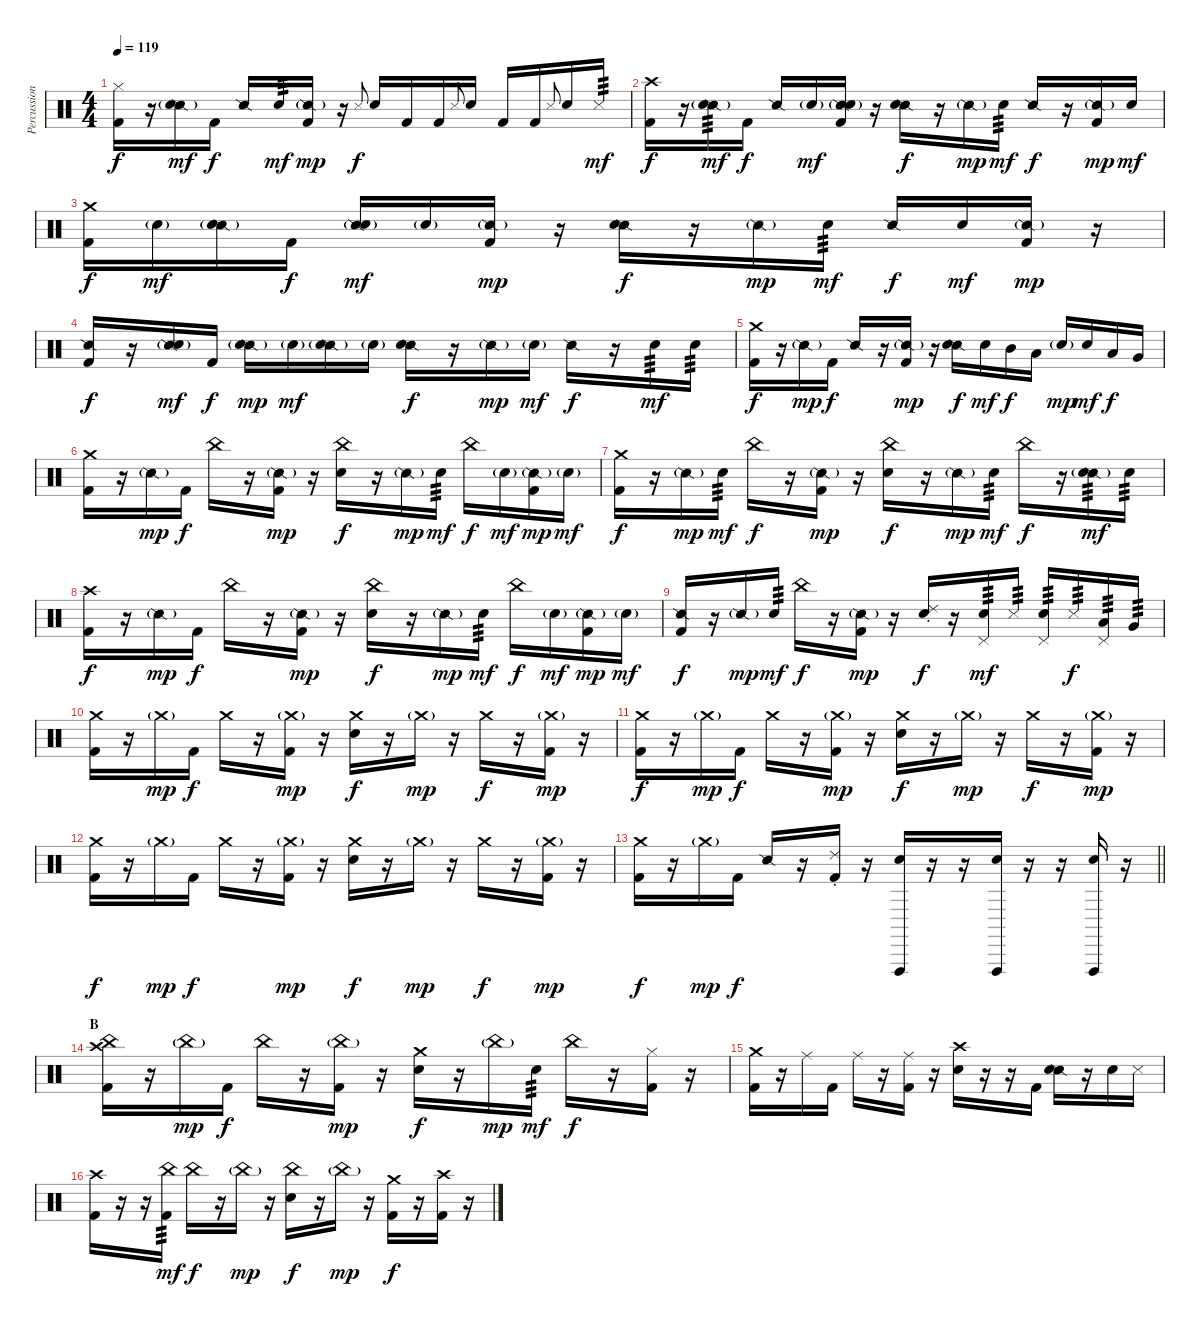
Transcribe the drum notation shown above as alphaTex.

\track ("Percussion" "Percussion") {instrument percussion}
\staff {score}
\articulation defaults
\ts (4 4)
\tempo 119
\clef neutral
\ks c
("Hi-Hat (closed)" "Kick (hit) 2").16{dy f} r.16 ("Snare (side stick) 2"{g} "Snare (hit) 2").16{dy mf} "Kick (hit) 2".16{dy f} "Snare (side stick) 2".16 "Snare (hit) 2".16{tp 3 dy mf} ("Snare (side stick) 2"{g} "Kick (hit) 2").16{dy mp} r.16 "Metronome (hit)".8{gr onbeat dy f} "Snare (hit) 2".16 "Kick (hit) 2".16 "Kick (hit) 2".16 "Metronome (hit)".8{gr onbeat} "Snare (hit) 2".16 "Kick (hit) 2".16 "Kick (hit) 2".16 "Metronome (hit)".8{gr onbeat} "Snare (hit) 2".16 "Metronome (hit)".16{tp 3 dy mf} |
("Crash high (hit)" "Kick (hit) 2").16{dy f} r.16 ("Snare (side stick) 2"{g} "Snare (hit) 2").16{tp 3 dy mf} "Kick (hit) 2".16{dy f} "Snare (side stick) 2".16 "Snare (hit) 2"{g}.16{dy mf} ("Snare (side stick) 2"{g} "Snare (hit) 2"{g} "Kick (hit) 2").16 r.16 ("Snare (side stick) 2" "Snare (hit) 2").16{dy f} r.16 "Snare (side stick) 2"{g}.16{dy mp} "Snare (hit) 2".16{tp 3 dy mf} "Snare (side stick) 2".16{dy f} r.16 ("Snare (side stick) 2"{g} "Kick (hit) 2").16{dy mp} "Snare (hit) 2".16{dy mf} |
("Crash medium (hit)" "Kick (hit) 2").16{dy f} "Snare (hit) 2"{g}.16{dy mf} ("Snare (side stick) 2"{g} "Snare (hit) 2"{g}).16 "Kick (hit) 2".16{dy f} ("Snare (side stick) 2" "Snare (hit) 2"{g}).16{dy mf} "Snare (hit) 2"{g}.16 ("Snare (side stick) 2"{g} "Kick (hit) 2").16{dy mp} r.16 ("Snare (side stick) 2" "Snare (hit) 2").16{dy f} r.16 "Snare (side stick) 2"{g}.16{dy mp} "Snare (hit) 2".16{tp 3 dy mf} "Snare (side stick) 2".16{dy f} "Snare (hit) 2".16{dy mf} ("Snare (side stick) 2"{g} "Kick (hit) 2").16{dy mp} r.16 |
("Snare (side stick) 2" "Kick (hit) 2").16{dy f} r.16 ("Snare (side stick) 2"{g} "Snare (hit) 2"{g}).16{dy mf} "Kick (hit) 2".16{dy f} ("Snare (side stick) 2" "Snare (hit) 2"{g}).16{dy mp} "Snare (hit) 2"{g}.16{dy mf} ("Snare (side stick) 2"{g} "Snare (hit) 2").16 "Snare (hit) 2"{g}.16 ("Snare (side stick) 2" "Snare (hit) 2").16{dy f} r.16 "Snare (side stick) 2"{g}.16{dy mp} "Snare (hit) 2"{g}.16{dy mf} "Snare (side stick) 2".16{dy f} r.16 "Snare (hit) 2".16{tp 3 dy mf} "Snare (hit) 2".16{tp 3} |
("Crash medium (hit)" "Kick (hit) 2").16{dy f} r.16 "Snare (side stick) 2"{g}.16{dy mp} "Kick (hit) 2".16{dy f} "Snare (side stick) 2".16 r.16 ("Snare (side stick) 2"{g} "Kick (hit) 2").16{dy mp} r.16 ("Snare (side stick) 2" "Snare (hit) 2").16{dy f} "Snare (hit) 2".16{dy mf} "Mid Tom (hit)".16{dy f} "Low Tom (hit)".16 "Snare (hit) 2"{g}.16{dy mp} "Snare (hit) 2".16{dy mf} "Low Tom (hit)".16{dy f} "Very Low Tom (hit)".16 |
("Crash medium (hit)" "Kick (hit) 2").16 r.16 "Snare (side stick) 2"{g}.16{dy mp} "Kick (hit) 2".16{dy f} "China (hit)".16 r.16 ("Snare (side stick) 2"{g} "Kick (hit) 2").16{dy mp} r.16 ("China (hit)" "Snare (hit) 2").16{dy f} r.16 "Snare (side stick) 2"{g}.16{dy mp} "Snare (hit) 2".16{tp 3 dy mf} "China (hit)".16{dy f} "Snare (hit) 2"{g}.16{dy mf} ("Snare (side stick) 2"{g} "Kick (hit) 2").16{dy mp} "Snare (hit) 2"{g}.16{dy mf} |
("Crash medium (hit)" "Kick (hit) 2").16{dy f} r.16 "Snare (side stick) 2"{g}.16{dy mp} "Snare (hit) 2".16{tp 3 dy mf} "China (hit)".16{dy f} r.16 ("Snare (side stick) 2"{g} "Kick (hit) 2").16{dy mp} r.16 ("China (hit)" "Snare (hit) 2").16{dy f} r.16 "Snare (side stick) 2"{g}.16{dy mp} "Snare (hit) 2".16{tp 3 dy mf} "China (hit)".16{dy f} r.16 ("Snare (side stick) 2"{g} "Snare (hit) 2").16{tp 3 dy mf} "Snare (hit) 2".16{tp 3} |
("Crash high (hit)" "Kick (hit) 2").16{dy f} r.16 "Snare (side stick) 2"{g}.16{dy mp} "Kick (hit) 2".16{dy f} "China (hit)".16 r.16 ("Snare (side stick) 2"{g} "Kick (hit) 2").16{dy mp} r.16 ("China (hit)" "Snare (hit) 2").16{dy f} r.16 "Snare (side stick) 2"{g}.16{dy mp} "Snare (hit) 2".16{tp 3 dy mf} "China (hit)".16{dy f} "Snare (hit) 2"{g}.16{dy mf} ("Snare (side stick) 2"{g} "Kick (hit) 2").16{dy mp} "Snare (hit) 2"{g}.16{dy mf} |
("Snare (side stick) 2" "Kick (hit) 2").16{dy f} r.16 "Snare (side stick) 2"{g}.16{dy mp} "Snare (hit) 2".16{tp 3 dy mf} "China (hit)".16{dy f} r.16 ("Snare (side stick) 2"{g} "Kick (hit) 2").16{dy mp} r.16 ("Ride (choke) 2" "Snare (hit) 2").16{dy f} r.16 ("Pedal Hi-Hat (hit)" "Snare (hit) 2").16{tp 3 dy mf} "Metronome (hit)".16{tp 3} ("Pedal Hi-Hat (hit)" "Snare (hit) 2").16{tp 3} "Metronome (hit)".16{tp 3 dy f} ("Pedal Hi-Hat (hit)" "Low Tom (hit)").16{tp 3} "Very Low Tom (hit)".16{tp 3} |
("Crash medium (hit)" "Kick (hit) 2").16 r.16 "Crash medium (hit)"{g}.16{dy mp} "Kick (hit) 2".16{dy f} "Crash medium (hit)".16 r.16 ("Crash medium (hit)"{g} "Kick (hit) 2").16{dy mp} r.16 ("Crash medium (hit)" "Snare (hit) 2").16{dy f} r.16 "Crash medium (hit)"{g}.16{dy mp} r.16 "Crash medium (hit)".16{dy f} r.16 ("Crash medium (hit)"{g} "Kick (hit) 2").16{dy mp} r.16 |
("Crash medium (hit)" "Kick (hit) 2").16{dy f} r.16 "Crash medium (hit)"{g}.16{dy mp} "Kick (hit) 2".16{dy f} "Crash medium (hit)".16 r.16 ("Crash medium (hit)"{g} "Kick (hit) 2").16{dy mp} r.16 ("Crash medium (hit)" "Snare (hit) 2").16{dy f} r.16 "Crash medium (hit)"{g}.16{dy mp} r.16 "Crash medium (hit)".16{dy f} r.16 ("Crash medium (hit)"{g} "Kick (hit) 2").16{dy mp} r.16 |
("Crash medium (hit)" "Kick (hit) 2").16{dy f} r.16 "Crash medium (hit)"{g}.16{dy mp} "Kick (hit) 2".16{dy f} "Crash medium (hit)".16 r.16 ("Crash medium (hit)"{g} "Kick (hit) 2").16{dy mp} r.16 ("Crash medium (hit)" "Snare (hit) 2").16{dy f} r.16 "Crash medium (hit)"{g}.16{dy mp} r.16 "Crash medium (hit)".16{dy f} r.16 ("Crash medium (hit)"{g} "Kick (hit) 2").16{dy mp} r.16 |
\barLineRight lightlight
("Crash medium (hit)" "Kick (hit) 2").16{dy f} r.16 "Crash medium (hit)"{g}.16{dy mp} "Kick (hit) 2".16{dy f} "Snare (side stick) 2".16 r.16 ("Ride (choke) 2" "Kick (hit) 2").16 r.16 ("Vibraslap (hit)" "Snare (hit) 2").16 r.16 r.16 ("Vibraslap (hit)" "Snare (hit) 2").16 r.16 r.16 ("Vibraslap (hit)" "Snare (hit) 2").16 r.16 |
\section ("" "B")
("Crash high (hit)" "China (hit)" "Kick (hit) 2").16 r.16 "China (hit)"{g}.16{dy mp} "Kick (hit) 2".16{dy f} "China (hit)".16 r.16 ("China (hit)"{g} "Kick (hit) 2").16{dy mp} r.16 ("Crash medium (hit)" "Snare (hit) 2").16{dy f} r.16 "China (hit)"{g}.16{dy mp} "Snare (hit) 2".16{tp 3 dy mf} "China (hit)".16{dy f} r.16 ("Hi-Hat (closed)" "Kick (hit) 2").16 r.16 |
("Crash medium (hit)" "Kick (hit) 2").16 r.16 "Ride (middle)".16 "Kick (hit) 2".16 "Ride (middle)".16 r.16 ("Ride (middle)" "Kick (hit) 2").16 r.16 ("Crash high (hit)" "Snare (hit) 2").16 r.16 r.16 "Kick (hit) 2".16 ("Snare (side stick) 2" "Snare (hit) 2").16 r.16 "Snare (hit) 2".16 "Metronome (hit)".16 |
("Crash high (hit)" "Kick (hit) 2").16 r.16 r.16 ("China (hit)" "Kick (hit) 2").16{tp 3 dy mf} "China (hit)".16{dy f} r.16 "China (hit)"{g}.16{dy mp} r.16 ("China (hit)" "Snare (hit) 2").16{dy f} r.16 "China (hit)"{g}.16{dy mp} r.16 ("Crash medium (hit)" "Kick (hit) 2").16{dy f} r.16 ("Crash high (hit)" "Kick (hit) 2").16 r.16
